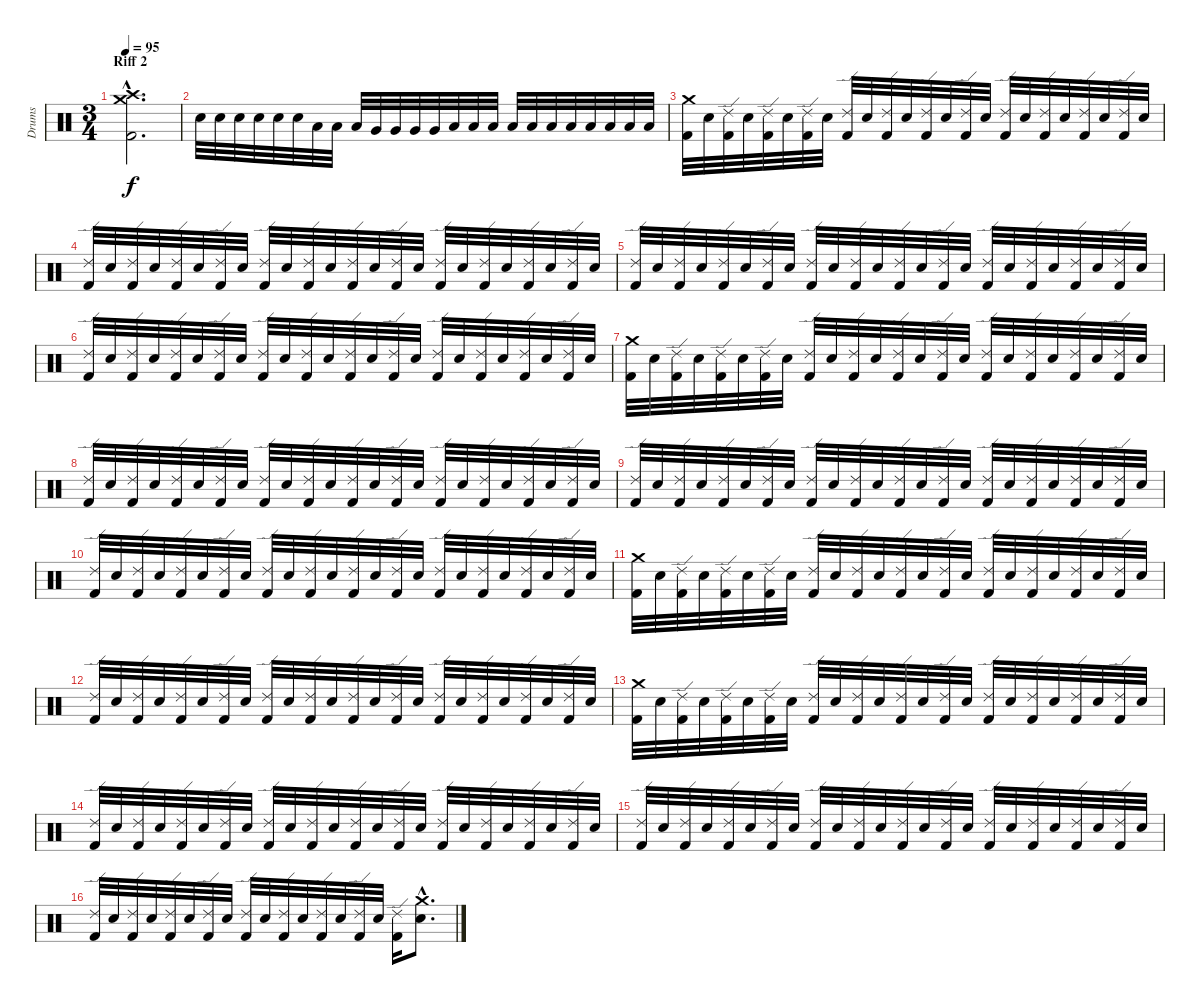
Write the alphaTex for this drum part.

\track ("Drums" "Drums") {instrument percussion}
\staff {score}
\articulation defaults
\ts (3 4)
\section ("" "Riff 2")
\tempo 95
\clef neutral
\ks c
("Crash high (hit)"{hac} "Crash medium (hit)"{hac} "Kick (hit) 2"{hac}).2{d dy f} |
"Electric Snare (hit)".32 "Electric Snare (hit)".32 "Electric Snare (hit)".32 "Electric Snare (hit)".32 "Electric Snare (hit)".32 "Electric Snare (hit)".32 "Low Tom (hit)".32 "Low Tom (hit)".32 "Low Tom (hit)".32 "Very Low Tom (hit)".32 "Very Low Tom (hit)".32 "Very Low Tom (hit)".32 "Very Low Tom (hit)".32 "Low Floor Tom (hit)".32 "Low Floor Tom (hit)".32 "Low Floor Tom (hit)".32 "Low Floor Tom (hit)".32 "Low Floor Tom (hit)".32 "Low Floor Tom (hit)".32 "Low Floor Tom (hit)".32 "Low Floor Tom (hit)".32 "Low Floor Tom (hit)".32 "Low Floor Tom (hit)".32 "Low Floor Tom (hit)".32 |
("Crash medium (hit)" "Kick (hit) 2").32 "Electric Snare (hit)".32 ("Ride (edge) 2" "Kick (hit) 2").32 "Electric Snare (hit)".32 ("Ride (edge) 2" "Kick (hit) 2").32 "Electric Snare (hit)".32 ("Ride (edge) 2" "Kick (hit) 2").32 "Electric Snare (hit)".32 ("Ride (edge) 2" "Kick (hit) 2").32 "Electric Snare (hit)".32 ("Ride (edge) 2" "Kick (hit) 2").32 "Electric Snare (hit)".32 ("Ride (edge) 2" "Kick (hit) 2").32 "Electric Snare (hit)".32 ("Ride (edge) 2" "Kick (hit) 2").32 "Electric Snare (hit)".32 ("Ride (edge) 2" "Kick (hit) 2").32 "Electric Snare (hit)".32 ("Ride (edge) 2" "Kick (hit) 2").32 "Electric Snare (hit)".32 ("Ride (edge) 2" "Kick (hit) 2").32 "Electric Snare (hit)".32 ("Ride (edge) 2" "Kick (hit) 2").32 "Electric Snare (hit)".32 |
("Ride (edge) 2" "Kick (hit) 2").32 "Electric Snare (hit)".32 ("Ride (edge) 2" "Kick (hit) 2").32 "Electric Snare (hit)".32 ("Ride (edge) 2" "Kick (hit) 2").32 "Electric Snare (hit)".32 ("Ride (edge) 2" "Kick (hit) 2").32 "Electric Snare (hit)".32 ("Ride (edge) 2" "Kick (hit) 2").32 "Electric Snare (hit)".32 ("Ride (edge) 2" "Kick (hit) 2").32 "Electric Snare (hit)".32 ("Ride (edge) 2" "Kick (hit) 2").32 "Electric Snare (hit)".32 ("Ride (edge) 2" "Kick (hit) 2").32 "Electric Snare (hit)".32 ("Ride (edge) 2" "Kick (hit) 2").32 "Electric Snare (hit)".32 ("Ride (edge) 2" "Kick (hit) 2").32 "Electric Snare (hit)".32 ("Ride (edge) 2" "Kick (hit) 2").32 "Electric Snare (hit)".32 ("Ride (edge) 2" "Kick (hit) 2").32 "Electric Snare (hit)".32 |
("Ride (edge) 2" "Kick (hit) 2").32 "Electric Snare (hit)".32 ("Ride (edge) 2" "Kick (hit) 2").32 "Electric Snare (hit)".32 ("Ride (edge) 2" "Kick (hit) 2").32 "Electric Snare (hit)".32 ("Ride (edge) 2" "Kick (hit) 2").32 "Electric Snare (hit)".32 ("Ride (edge) 2" "Kick (hit) 2").32 "Electric Snare (hit)".32 ("Ride (edge) 2" "Kick (hit) 2").32 "Electric Snare (hit)".32 ("Ride (edge) 2" "Kick (hit) 2").32 "Electric Snare (hit)".32 ("Ride (edge) 2" "Kick (hit) 2").32 "Electric Snare (hit)".32 ("Ride (edge) 2" "Kick (hit) 2").32 "Electric Snare (hit)".32 ("Ride (edge) 2" "Kick (hit) 2").32 "Electric Snare (hit)".32 ("Ride (edge) 2" "Kick (hit) 2").32 "Electric Snare (hit)".32 ("Ride (edge) 2" "Kick (hit) 2").32 "Electric Snare (hit)".32 |
("Ride (edge) 2" "Kick (hit) 2").32 "Electric Snare (hit)".32 ("Ride (edge) 2" "Kick (hit) 2").32 "Electric Snare (hit)".32 ("Ride (edge) 2" "Kick (hit) 2").32 "Electric Snare (hit)".32 ("Ride (edge) 2" "Kick (hit) 2").32 "Electric Snare (hit)".32 ("Ride (edge) 2" "Kick (hit) 2").32 "Electric Snare (hit)".32 ("Ride (edge) 2" "Kick (hit) 2").32 "Electric Snare (hit)".32 ("Ride (edge) 2" "Kick (hit) 2").32 "Electric Snare (hit)".32 ("Ride (edge) 2" "Kick (hit) 2").32 "Electric Snare (hit)".32 ("Ride (edge) 2" "Kick (hit) 2").32 "Electric Snare (hit)".32 ("Ride (edge) 2" "Kick (hit) 2").32 "Electric Snare (hit)".32 ("Ride (edge) 2" "Kick (hit) 2").32 "Electric Snare (hit)".32 ("Ride (edge) 2" "Kick (hit) 2").32 "Electric Snare (hit)".32 |
("Crash medium (hit)" "Kick (hit) 2").32 "Electric Snare (hit)".32 ("Ride (edge) 2" "Kick (hit) 2").32 "Electric Snare (hit)".32 ("Ride (edge) 2" "Kick (hit) 2").32 "Electric Snare (hit)".32 ("Ride (edge) 2" "Kick (hit) 2").32 "Electric Snare (hit)".32 ("Ride (edge) 2" "Kick (hit) 2").32 "Electric Snare (hit)".32 ("Ride (edge) 2" "Kick (hit) 2").32 "Electric Snare (hit)".32 ("Ride (edge) 2" "Kick (hit) 2").32 "Electric Snare (hit)".32 ("Ride (edge) 2" "Kick (hit) 2").32 "Electric Snare (hit)".32 ("Ride (edge) 2" "Kick (hit) 2").32 "Electric Snare (hit)".32 ("Ride (edge) 2" "Kick (hit) 2").32 "Electric Snare (hit)".32 ("Ride (edge) 2" "Kick (hit) 2").32 "Electric Snare (hit)".32 ("Ride (edge) 2" "Kick (hit) 2").32 "Electric Snare (hit)".32 |
("Ride (edge) 2" "Kick (hit) 2").32 "Electric Snare (hit)".32 ("Ride (edge) 2" "Kick (hit) 2").32 "Electric Snare (hit)".32 ("Ride (edge) 2" "Kick (hit) 2").32 "Electric Snare (hit)".32 ("Ride (edge) 2" "Kick (hit) 2").32 "Electric Snare (hit)".32 ("Ride (edge) 2" "Kick (hit) 2").32 "Electric Snare (hit)".32 ("Ride (edge) 2" "Kick (hit) 2").32 "Electric Snare (hit)".32 ("Ride (edge) 2" "Kick (hit) 2").32 "Electric Snare (hit)".32 ("Ride (edge) 2" "Kick (hit) 2").32 "Electric Snare (hit)".32 ("Ride (edge) 2" "Kick (hit) 2").32 "Electric Snare (hit)".32 ("Ride (edge) 2" "Kick (hit) 2").32 "Electric Snare (hit)".32 ("Ride (edge) 2" "Kick (hit) 2").32 "Electric Snare (hit)".32 ("Ride (edge) 2" "Kick (hit) 2").32 "Electric Snare (hit)".32 |
("Ride (edge) 2" "Kick (hit) 2").32 "Electric Snare (hit)".32 ("Ride (edge) 2" "Kick (hit) 2").32 "Electric Snare (hit)".32 ("Ride (edge) 2" "Kick (hit) 2").32 "Electric Snare (hit)".32 ("Ride (edge) 2" "Kick (hit) 2").32 "Electric Snare (hit)".32 ("Ride (edge) 2" "Kick (hit) 2").32 "Electric Snare (hit)".32 ("Ride (edge) 2" "Kick (hit) 2").32 "Electric Snare (hit)".32 ("Ride (edge) 2" "Kick (hit) 2").32 "Electric Snare (hit)".32 ("Ride (edge) 2" "Kick (hit) 2").32 "Electric Snare (hit)".32 ("Ride (edge) 2" "Kick (hit) 2").32 "Electric Snare (hit)".32 ("Ride (edge) 2" "Kick (hit) 2").32 "Electric Snare (hit)".32 ("Ride (edge) 2" "Kick (hit) 2").32 "Electric Snare (hit)".32 ("Ride (edge) 2" "Kick (hit) 2").32 "Electric Snare (hit)".32 |
("Ride (edge) 2" "Kick (hit) 2").32 "Electric Snare (hit)".32 ("Ride (edge) 2" "Kick (hit) 2").32 "Electric Snare (hit)".32 ("Ride (edge) 2" "Kick (hit) 2").32 "Electric Snare (hit)".32 ("Ride (edge) 2" "Kick (hit) 2").32 "Electric Snare (hit)".32 ("Ride (edge) 2" "Kick (hit) 2").32 "Electric Snare (hit)".32 ("Ride (edge) 2" "Kick (hit) 2").32 "Electric Snare (hit)".32 ("Ride (edge) 2" "Kick (hit) 2").32 "Electric Snare (hit)".32 ("Ride (edge) 2" "Kick (hit) 2").32 "Electric Snare (hit)".32 ("Ride (edge) 2" "Kick (hit) 2").32 "Electric Snare (hit)".32 ("Ride (edge) 2" "Kick (hit) 2").32 "Electric Snare (hit)".32 ("Ride (edge) 2" "Kick (hit) 2").32 "Electric Snare (hit)".32 ("Ride (edge) 2" "Kick (hit) 2").32 "Electric Snare (hit)".32 |
("Crash medium (hit)" "Kick (hit) 2").32 "Electric Snare (hit)".32 ("Ride (edge) 2" "Kick (hit) 2").32 "Electric Snare (hit)".32 ("Ride (edge) 2" "Kick (hit) 2").32 "Electric Snare (hit)".32 ("Ride (edge) 2" "Kick (hit) 2").32 "Electric Snare (hit)".32 ("Ride (edge) 2" "Kick (hit) 2").32 "Electric Snare (hit)".32 ("Ride (edge) 2" "Kick (hit) 2").32 "Electric Snare (hit)".32 ("Ride (edge) 2" "Kick (hit) 2").32 "Electric Snare (hit)".32 ("Ride (edge) 2" "Kick (hit) 2").32 "Electric Snare (hit)".32 ("Ride (edge) 2" "Kick (hit) 2").32 "Electric Snare (hit)".32 ("Ride (edge) 2" "Kick (hit) 2").32 "Electric Snare (hit)".32 ("Ride (edge) 2" "Kick (hit) 2").32 "Electric Snare (hit)".32 ("Ride (edge) 2" "Kick (hit) 2").32 "Electric Snare (hit)".32 |
("Ride (edge) 2" "Kick (hit) 2").32 "Electric Snare (hit)".32 ("Ride (edge) 2" "Kick (hit) 2").32 "Electric Snare (hit)".32 ("Ride (edge) 2" "Kick (hit) 2").32 "Electric Snare (hit)".32 ("Ride (edge) 2" "Kick (hit) 2").32 "Electric Snare (hit)".32 ("Ride (edge) 2" "Kick (hit) 2").32 "Electric Snare (hit)".32 ("Ride (edge) 2" "Kick (hit) 2").32 "Electric Snare (hit)".32 ("Ride (edge) 2" "Kick (hit) 2").32 "Electric Snare (hit)".32 ("Ride (edge) 2" "Kick (hit) 2").32 "Electric Snare (hit)".32 ("Ride (edge) 2" "Kick (hit) 2").32 "Electric Snare (hit)".32 ("Ride (edge) 2" "Kick (hit) 2").32 "Electric Snare (hit)".32 ("Ride (edge) 2" "Kick (hit) 2").32 "Electric Snare (hit)".32 ("Ride (edge) 2" "Kick (hit) 2").32 "Electric Snare (hit)".32 |
("Crash medium (hit)" "Kick (hit) 2").32 "Electric Snare (hit)".32 ("Ride (edge) 2" "Kick (hit) 2").32 "Electric Snare (hit)".32 ("Ride (edge) 2" "Kick (hit) 2").32 "Electric Snare (hit)".32 ("Ride (edge) 2" "Kick (hit) 2").32 "Electric Snare (hit)".32 ("Ride (edge) 2" "Kick (hit) 2").32 "Electric Snare (hit)".32 ("Ride (edge) 2" "Kick (hit) 2").32 "Electric Snare (hit)".32 ("Ride (edge) 2" "Kick (hit) 2").32 "Electric Snare (hit)".32 ("Ride (edge) 2" "Kick (hit) 2").32 "Electric Snare (hit)".32 ("Ride (edge) 2" "Kick (hit) 2").32 "Electric Snare (hit)".32 ("Ride (edge) 2" "Kick (hit) 2").32 "Electric Snare (hit)".32 ("Ride (edge) 2" "Kick (hit) 2").32 "Electric Snare (hit)".32 ("Ride (edge) 2" "Kick (hit) 2").32 "Electric Snare (hit)".32 |
("Ride (edge) 2" "Kick (hit) 2").32 "Electric Snare (hit)".32 ("Ride (edge) 2" "Kick (hit) 2").32 "Electric Snare (hit)".32 ("Ride (edge) 2" "Kick (hit) 2").32 "Electric Snare (hit)".32 ("Ride (edge) 2" "Kick (hit) 2").32 "Electric Snare (hit)".32 ("Ride (edge) 2" "Kick (hit) 2").32 "Electric Snare (hit)".32 ("Ride (edge) 2" "Kick (hit) 2").32 "Electric Snare (hit)".32 ("Ride (edge) 2" "Kick (hit) 2").32 "Electric Snare (hit)".32 ("Ride (edge) 2" "Kick (hit) 2").32 "Electric Snare (hit)".32 ("Ride (edge) 2" "Kick (hit) 2").32 "Electric Snare (hit)".32 ("Ride (edge) 2" "Kick (hit) 2").32 "Electric Snare (hit)".32 ("Ride (edge) 2" "Kick (hit) 2").32 "Electric Snare (hit)".32 ("Ride (edge) 2" "Kick (hit) 2").32 "Electric Snare (hit)".32 |
("Ride (edge) 2" "Kick (hit) 2").32 "Electric Snare (hit)".32 ("Ride (edge) 2" "Kick (hit) 2").32 "Electric Snare (hit)".32 ("Ride (edge) 2" "Kick (hit) 2").32 "Electric Snare (hit)".32 ("Ride (edge) 2" "Kick (hit) 2").32 "Electric Snare (hit)".32 ("Ride (edge) 2" "Kick (hit) 2").32 "Electric Snare (hit)".32 ("Ride (edge) 2" "Kick (hit) 2").32 "Electric Snare (hit)".32 ("Ride (edge) 2" "Kick (hit) 2").32 "Electric Snare (hit)".32 ("Ride (edge) 2" "Kick (hit) 2").32 "Electric Snare (hit)".32 ("Ride (edge) 2" "Kick (hit) 2").32 "Electric Snare (hit)".32 ("Ride (edge) 2" "Kick (hit) 2").32 "Electric Snare (hit)".32 ("Ride (edge) 2" "Kick (hit) 2").32 "Electric Snare (hit)".32 ("Ride (edge) 2" "Kick (hit) 2").32 "Electric Snare (hit)".32 |
("Ride (edge) 2" "Kick (hit) 2").32 "Electric Snare (hit)".32 ("Ride (edge) 2" "Kick (hit) 2").32 "Electric Snare (hit)".32 ("Ride (edge) 2" "Kick (hit) 2").32 "Electric Snare (hit)".32 ("Ride (edge) 2" "Kick (hit) 2").32 "Electric Snare (hit)".32 ("Ride (edge) 2" "Kick (hit) 2").32 "Electric Snare (hit)".32 ("Ride (edge) 2" "Kick (hit) 2").32 "Electric Snare (hit)".32 ("Ride (edge) 2" "Kick (hit) 2").32 "Electric Snare (hit)".32 ("Ride (edge) 2" "Kick (hit) 2").32 "Electric Snare (hit)".32 ("Ride (edge) 2" "Kick (hit) 2").16 ("Crash medium (hit)"{hac} "Electric Snare (hit)"{hac}).8{d}
